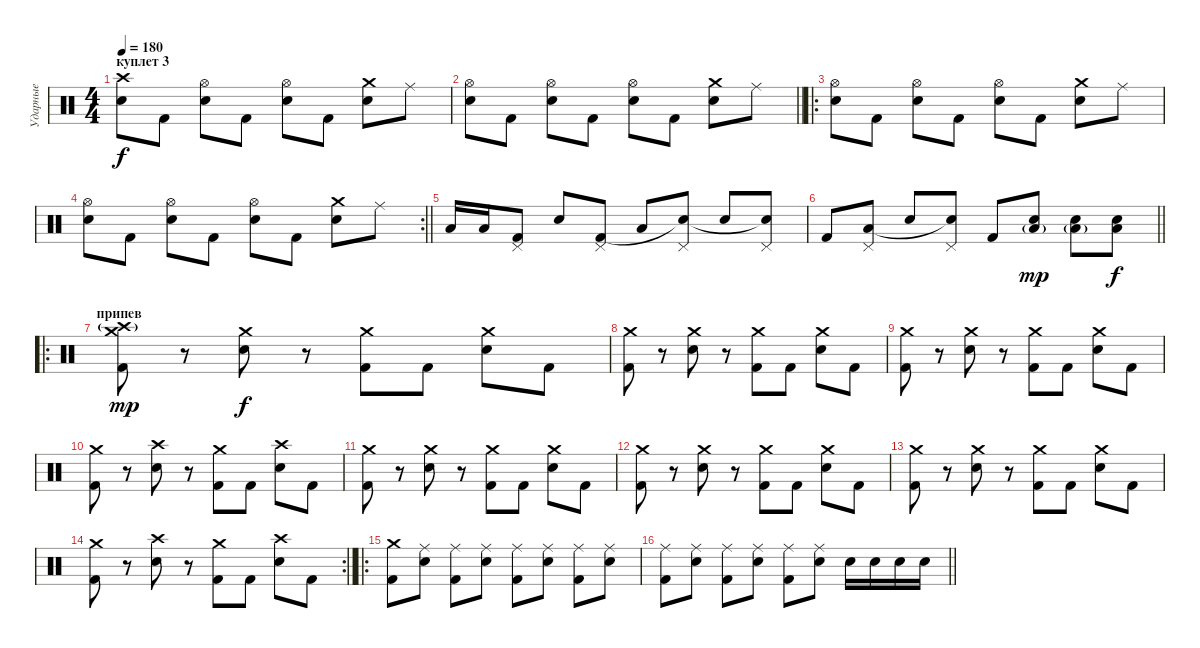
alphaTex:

\track ("Ударные" "Ударные") {instrument percussion}
\staff {score}
\articulation defaults
\ts (4 4)
\section ("" "куплет 3")
\tempo 180
\clef neutral
\ks c
("Crash high (hit)" "Snare (hit) 2").8{dy f} "Kick (hit) 2".8 ("Hi-Hat (open)" "Snare (hit) 2").8 "Kick (hit) 2".8 ("Hi-Hat (open)" "Snare (hit) 2").8 "Kick (hit) 2".8 ("Crash medium (hit)" "Snare (hit) 2").8 "Ride (middle)".8 |
\barLineRight lightlight
("Hi-Hat (open)" "Snare (hit) 2").8 "Kick (hit) 2".8 ("Hi-Hat (open)" "Snare (hit) 2").8 "Kick (hit) 2".8 ("Hi-Hat (open)" "Snare (hit) 2").8 "Kick (hit) 2".8 ("Crash medium (hit)" "Snare (hit) 2").8 "Ride (middle)".8 |
\ro
("Hi-Hat (open)" "Snare (hit) 2").8 "Kick (hit) 2".8 ("Hi-Hat (open)" "Snare (hit) 2").8 "Kick (hit) 2".8 ("Hi-Hat (open)" "Snare (hit) 2").8 "Kick (hit) 2".8 ("Crash medium (hit)" "Snare (hit) 2").8 "Ride (middle)".8 |
\rc 2
\barLineRight lightlight
("Hi-Hat (open)" "Snare (hit) 2").8 "Kick (hit) 2".8 ("Hi-Hat (open)" "Snare (hit) 2").8 "Kick (hit) 2".8 ("Hi-Hat (open)" "Snare (hit) 2").8 "Kick (hit) 2".8 ("Crash medium (hit)" "Snare (hit) 2").8 "Ride (middle)".8 |
"Low Tom (hit)".16 "Low Tom (hit)".16 ("Pedal Hi-Hat (hit)" "Kick (hit) 2").8 "Snare (hit) 2".8 ("Pedal Hi-Hat (hit)" "Kick (hit) 2").8 "Low Floor Tom (hit)".8 ("Pedal Hi-Hat (hit)" "Snare (hit)"{t}).8 "Snare (hit) 2".8 ("Pedal Hi-Hat (hit)" "Snare (hit)"{t}).8 |
\barLineRight lightlight "Kick (hit) 2".8
("Pedal Hi-Hat (hit)" "Low Floor Tom (hit)").8 "Snare (hit) 2".8 ("Pedal Hi-Hat (hit)" "Snare (hit)"{t}).8 "Kick (hit) 2".8 ("Low Floor Tom (hit)"{g} "Snare (hit) 2").8{dy mp} ("Low Floor Tom (hit)"{g} "Snare (hit) 2").8 ("Low Floor Tom (hit)" "Snare (hit) 2").8{dy f} |
\ro
\section ("" "припев")
("Crash medium (hit)" "Crash high (hit)"{g} "Kick (hit) 2").8{dy mp} r.8 ("Crash medium (hit)" "Snare (hit) 2").8{dy f} r.8 ("Crash medium (hit)" "Kick (hit) 2").8 "Kick (hit) 2".8 ("Crash medium (hit)" "Snare (hit) 2").8 "Kick (hit) 2".8 |
("Crash medium (hit)" "Kick (hit) 2").8 r.8 ("Crash medium (hit)" "Snare (hit) 2").8 r.8 ("Crash medium (hit)" "Kick (hit) 2").8 "Kick (hit) 2".8 ("Crash medium (hit)" "Snare (hit) 2").8 "Kick (hit) 2".8 |
("Crash medium (hit)" "Kick (hit) 2").8 r.8 ("Crash medium (hit)" "Snare (hit) 2").8 r.8 ("Crash medium (hit)" "Kick (hit) 2").8 "Kick (hit) 2".8 ("Crash medium (hit)" "Snare (hit) 2").8 "Kick (hit) 2".8 |
("Crash medium (hit)" "Kick (hit) 2").8 r.8 ("Crash high (hit)" "Snare (hit) 2").8 r.8 ("Crash medium (hit)" "Kick (hit) 2").8 "Kick (hit) 2".8 ("Crash high (hit)" "Snare (hit) 2").8 "Kick (hit) 2".8 |
("Crash medium (hit)" "Kick (hit) 2").8 r.8 ("Crash medium (hit)" "Snare (hit) 2").8 r.8 ("Crash medium (hit)" "Kick (hit) 2").8 "Kick (hit) 2".8 ("Crash medium (hit)" "Snare (hit) 2").8 "Kick (hit) 2".8 |
("Crash medium (hit)" "Kick (hit) 2").8 r.8 ("Crash medium (hit)" "Snare (hit) 2").8 r.8 ("Crash medium (hit)" "Kick (hit) 2").8 "Kick (hit) 2".8 ("Crash medium (hit)" "Snare (hit) 2").8 "Kick (hit) 2".8 |
("Crash medium (hit)" "Kick (hit) 2").8 r.8 ("Crash medium (hit)" "Snare (hit) 2").8 r.8 ("Crash medium (hit)" "Kick (hit) 2").8 "Kick (hit) 2".8 ("Crash medium (hit)" "Snare (hit) 2").8 "Kick (hit) 2".8 |
\rc 2
\barLineRight lightlight
("Crash medium (hit)" "Kick (hit) 2").8 r.8 ("Crash high (hit)" "Snare (hit) 2").8 r.8 ("Crash medium (hit)" "Kick (hit) 2").8 "Kick (hit) 2".8 ("Crash high (hit)" "Snare (hit) 2").8 "Kick (hit) 2".8 |
\ro
("Crash medium (hit)" "Kick (hit) 2").8 ("Ride (middle)" "Snare (hit) 2").8 ("Ride (middle)" "Kick (hit) 2").8 ("Ride (middle)" "Snare (hit) 2").8 ("Ride (middle)" "Kick (hit) 2").8 ("Ride (middle)" "Snare (hit) 2").8 ("Ride (middle)" "Kick (hit) 2").8 ("Ride (middle)" "Snare (hit) 2").8 |
\barLineRight lightlight
("Ride (middle)" "Kick (hit) 2").8 ("Ride (middle)" "Snare (hit) 2").8 ("Ride (middle)" "Kick (hit) 2").8 ("Ride (middle)" "Snare (hit) 2").8 ("Ride (middle)" "Kick (hit) 2").8 ("Ride (middle)" "Snare (hit) 2").8 "Snare (hit) 2".16 "Snare (hit) 2".16 "Snare (hit) 2".16 "Snare (hit) 2".16
